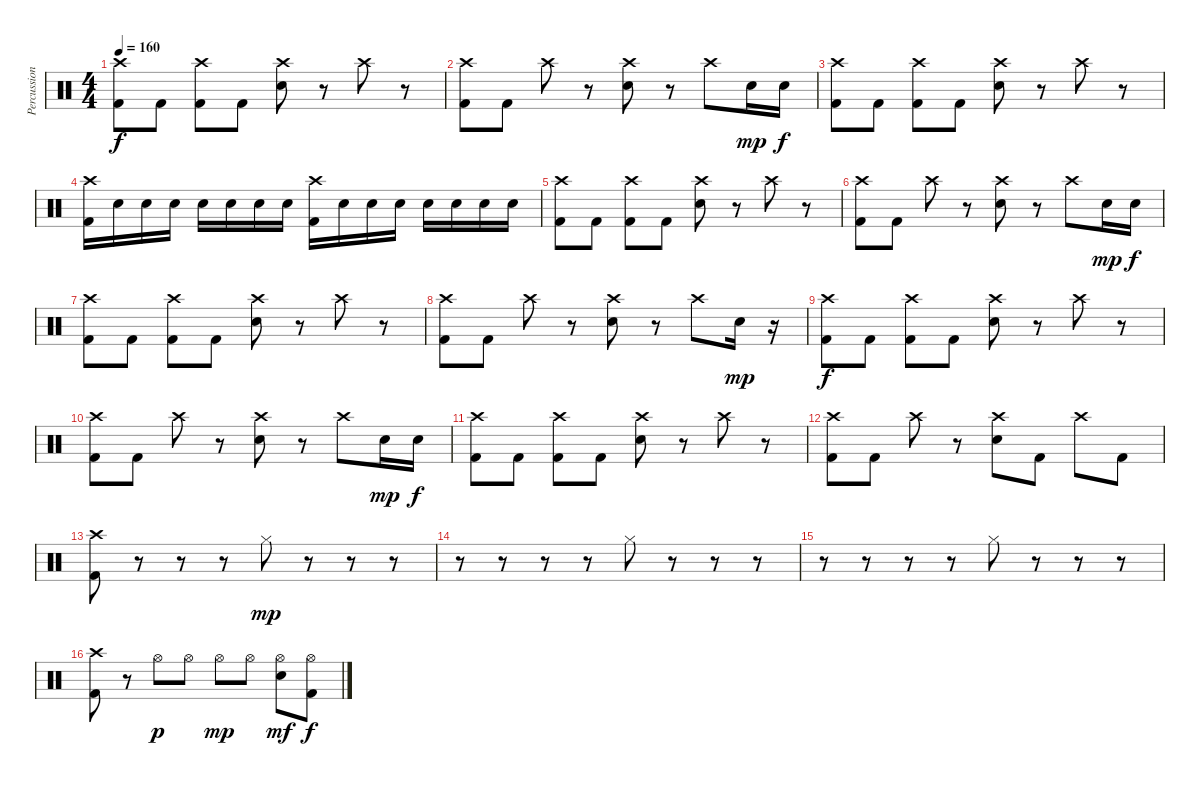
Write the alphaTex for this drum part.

\track ("Percussion" "Percussion") {instrument percussion}
\staff {score}
\articulation defaults
\ts (4 4)
\tempo 160
\clef neutral
\ks c
("Crash high (hit)" "Kick (hit) 2").8{dy f} "Kick (hit) 2".8 ("Crash high (hit)" "Kick (hit) 2").8 "Kick (hit) 2".8 ("Crash high (hit)" "Electric Snare (hit)").8 r.8 "Crash high (hit)".8 r.8 |
("Crash high (hit)" "Kick (hit) 2").8 "Kick (hit) 2".8 "Crash high (hit)".8 r.8 ("Crash high (hit)" "Electric Snare (hit)").8 r.8 "Crash high (hit)".8 "Electric Snare (hit)".16{dy mp} "Electric Snare (hit)".16{dy f} |
("Crash high (hit)" "Kick (hit) 2").8 "Kick (hit) 2".8 ("Crash high (hit)" "Kick (hit) 2").8 "Kick (hit) 2".8 ("Crash high (hit)" "Electric Snare (hit)").8 r.8 "Crash high (hit)".8 r.8 |
("Crash high (hit)" "Kick (hit) 2").16 "Electric Snare (hit)".16 "Electric Snare (hit)".16 "Electric Snare (hit)".16 "Electric Snare (hit)".16 "Electric Snare (hit)".16 "Electric Snare (hit)".16 "Electric Snare (hit)".16 ("Crash high (hit)" "Kick (hit) 2").16 "Electric Snare (hit)".16 "Electric Snare (hit)".16 "Electric Snare (hit)".16 "Electric Snare (hit)".16 "Electric Snare (hit)".16 "Electric Snare (hit)".16 "Electric Snare (hit)".16 |
("Crash high (hit)" "Kick (hit) 2").8 "Kick (hit) 2".8 ("Crash high (hit)" "Kick (hit) 2").8 "Kick (hit) 2".8 ("Crash high (hit)" "Electric Snare (hit)").8 r.8 "Crash high (hit)".8 r.8 |
("Crash high (hit)" "Kick (hit) 2").8 "Kick (hit) 2".8 "Crash high (hit)".8 r.8 ("Crash high (hit)" "Electric Snare (hit)").8 r.8 "Crash high (hit)".8 "Electric Snare (hit)".16{dy mp} "Electric Snare (hit)".16{dy f} |
("Crash high (hit)" "Kick (hit) 2").8 "Kick (hit) 2".8 ("Crash high (hit)" "Kick (hit) 2").8 "Kick (hit) 2".8 ("Crash high (hit)" "Electric Snare (hit)").8 r.8 "Crash high (hit)".8 r.8 |
("Crash high (hit)" "Kick (hit) 2").8 "Kick (hit) 2".8 "Crash high (hit)".8 r.8 ("Crash high (hit)" "Electric Snare (hit)").8 r.8 "Crash high (hit)".8 "Electric Snare (hit)".16{dy mp} r.16 |
("Crash high (hit)" "Kick (hit) 2").8{dy f} "Kick (hit) 2".8 ("Crash high (hit)" "Kick (hit) 2").8 "Kick (hit) 2".8 ("Crash high (hit)" "Electric Snare (hit)").8 r.8 "Crash high (hit)".8 r.8 |
("Crash high (hit)" "Kick (hit) 2").8 "Kick (hit) 2".8 "Crash high (hit)".8 r.8 ("Crash high (hit)" "Electric Snare (hit)").8 r.8 "Crash high (hit)".8 "Electric Snare (hit)".16{dy mp} "Electric Snare (hit)".16{dy f} |
("Crash high (hit)" "Kick (hit) 2").8 "Kick (hit) 2".8 ("Crash high (hit)" "Kick (hit) 2").8 "Kick (hit) 2".8 ("Crash high (hit)" "Electric Snare (hit)").8 r.8 "Crash high (hit)".8 r.8 |
("Crash high (hit)" "Kick (hit) 2").8 "Kick (hit) 2".8 "Crash high (hit)".8 r.8 ("Crash high (hit)" "Electric Snare (hit)").8 "Kick (hit) 2".8 "Crash high (hit)".8 "Kick (hit) 2".8 |
("Crash high (hit)" "Kick (hit) 2").8 r.8 r.8 r.8 "Hi-Hat (closed)".8{dy mp} r.8 r.8 r.8 |
r.8 r.8 r.8 r.8 "Hi-Hat (closed)".8 r.8 r.8 r.8 |
r.8 r.8 r.8 r.8 "Hi-Hat (closed)".8 r.8 r.8 r.8 |
("Crash high (hit)" "Kick (hit) 2").8 r.8 "Hi-Hat (open)".8{dy p} "Hi-Hat (open)".8 "Hi-Hat (open)".8{dy mp} "Hi-Hat (open)".8 ("Hi-Hat (open)" "Electric Snare (hit)").8{dy mf} ("Hi-Hat (open)" "Kick (hit) 2").8{dy f}
